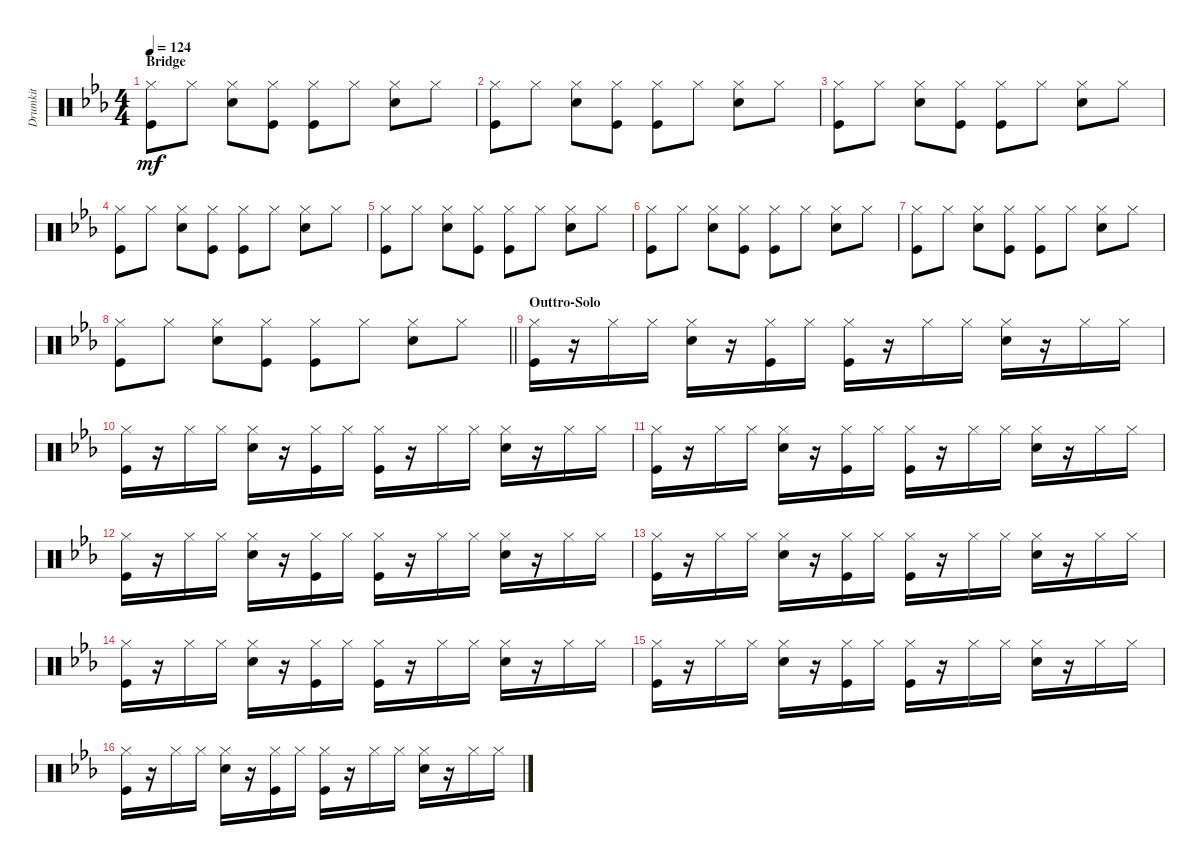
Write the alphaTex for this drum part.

\track ("Drumkit" "Drumkit") {instrument percussion}
\staff {score}
\articulation defaults
\ts (4 4)
\section ("" "Bridge")
\tempo 124
\clef neutral
\ks eb
("Hi-Hat (closed)" "Kick (hit)").8{dy mf} "Hi-Hat (closed)".8 ("Hi-Hat (closed)" "Snare (hit) 2").8 ("Hi-Hat (closed)" "Kick (hit)").8 ("Hi-Hat (closed)" "Kick (hit)").8 "Hi-Hat (closed)".8 ("Hi-Hat (closed)" "Snare (hit) 2").8 "Hi-Hat (closed)".8 |
("Hi-Hat (closed)" "Kick (hit)").8 "Hi-Hat (closed)".8 ("Hi-Hat (closed)" "Snare (hit) 2").8 ("Hi-Hat (closed)" "Kick (hit)").8 ("Hi-Hat (closed)" "Kick (hit)").8 "Hi-Hat (closed)".8 ("Hi-Hat (closed)" "Snare (hit) 2").8 "Hi-Hat (closed)".8 |
("Hi-Hat (closed)" "Kick (hit)").8 "Hi-Hat (closed)".8 ("Hi-Hat (closed)" "Snare (hit) 2").8 ("Hi-Hat (closed)" "Kick (hit)").8 ("Hi-Hat (closed)" "Kick (hit)").8 "Hi-Hat (closed)".8 ("Hi-Hat (closed)" "Snare (hit) 2").8 "Hi-Hat (closed)".8 |
("Hi-Hat (closed)" "Kick (hit)").8 "Hi-Hat (closed)".8 ("Hi-Hat (closed)" "Snare (hit) 2").8 ("Hi-Hat (closed)" "Kick (hit)").8 ("Hi-Hat (closed)" "Kick (hit)").8 "Hi-Hat (closed)".8 ("Hi-Hat (closed)" "Snare (hit) 2").8 "Hi-Hat (closed)".8 |
("Hi-Hat (closed)" "Kick (hit)").8 "Hi-Hat (closed)".8 ("Hi-Hat (closed)" "Snare (hit) 2").8 ("Hi-Hat (closed)" "Kick (hit)").8 ("Hi-Hat (closed)" "Kick (hit)").8 "Hi-Hat (closed)".8 ("Hi-Hat (closed)" "Snare (hit) 2").8 "Hi-Hat (closed)".8 |
("Hi-Hat (closed)" "Kick (hit)").8 "Hi-Hat (closed)".8 ("Hi-Hat (closed)" "Snare (hit) 2").8 ("Hi-Hat (closed)" "Kick (hit)").8 ("Hi-Hat (closed)" "Kick (hit)").8 "Hi-Hat (closed)".8 ("Hi-Hat (closed)" "Snare (hit) 2").8 "Hi-Hat (closed)".8 |
("Hi-Hat (closed)" "Kick (hit)").8 "Hi-Hat (closed)".8 ("Hi-Hat (closed)" "Snare (hit) 2").8 ("Hi-Hat (closed)" "Kick (hit)").8 ("Hi-Hat (closed)" "Kick (hit)").8 "Hi-Hat (closed)".8 ("Hi-Hat (closed)" "Snare (hit) 2").8 "Hi-Hat (closed)".8 |
\barLineRight lightlight
("Hi-Hat (closed)" "Kick (hit)").8 "Hi-Hat (closed)".8 ("Hi-Hat (closed)" "Snare (hit) 2").8 ("Hi-Hat (closed)" "Kick (hit)").8 ("Hi-Hat (closed)" "Kick (hit)").8 "Hi-Hat (closed)".8 ("Hi-Hat (closed)" "Snare (hit) 2").8 "Hi-Hat (closed)".8 |
\section ("" "Outtro-Solo")
("Hi-Hat (closed)" "Kick (hit)").16 r.16 "Hi-Hat (closed)".16 "Hi-Hat (closed)".16 ("Hi-Hat (closed)" "Snare (hit) 2").16 r.16 ("Hi-Hat (closed)" "Kick (hit)").16 "Hi-Hat (closed)".16 ("Hi-Hat (closed)" "Kick (hit)").16 r.16 "Hi-Hat (closed)".16 "Hi-Hat (closed)".16 ("Hi-Hat (closed)" "Snare (hit) 2").16 r.16 "Hi-Hat (closed)".16 "Hi-Hat (closed)".16 |
("Hi-Hat (closed)" "Kick (hit)").16 r.16 "Hi-Hat (closed)".16 "Hi-Hat (closed)".16 ("Hi-Hat (closed)" "Snare (hit) 2").16 r.16 ("Hi-Hat (closed)" "Kick (hit)").16 "Hi-Hat (closed)".16 ("Hi-Hat (closed)" "Kick (hit)").16 r.16 "Hi-Hat (closed)".16 "Hi-Hat (closed)".16 ("Hi-Hat (closed)" "Snare (hit) 2").16 r.16 "Hi-Hat (closed)".16 "Hi-Hat (closed)".16 |
("Hi-Hat (closed)" "Kick (hit)").16 r.16 "Hi-Hat (closed)".16 "Hi-Hat (closed)".16 ("Hi-Hat (closed)" "Snare (hit) 2").16 r.16 ("Hi-Hat (closed)" "Kick (hit)").16 "Hi-Hat (closed)".16 ("Hi-Hat (closed)" "Kick (hit)").16 r.16 "Hi-Hat (closed)".16 "Hi-Hat (closed)".16 ("Hi-Hat (closed)" "Snare (hit) 2").16 r.16 "Hi-Hat (closed)".16 "Hi-Hat (closed)".16 |
("Hi-Hat (closed)" "Kick (hit)").16 r.16 "Hi-Hat (closed)".16 "Hi-Hat (closed)".16 ("Hi-Hat (closed)" "Snare (hit) 2").16 r.16 ("Hi-Hat (closed)" "Kick (hit)").16 "Hi-Hat (closed)".16 ("Hi-Hat (closed)" "Kick (hit)").16 r.16 "Hi-Hat (closed)".16 "Hi-Hat (closed)".16 ("Hi-Hat (closed)" "Snare (hit) 2").16 r.16 "Hi-Hat (closed)".16 "Hi-Hat (closed)".16 |
("Hi-Hat (closed)" "Kick (hit)").16 r.16 "Hi-Hat (closed)".16 "Hi-Hat (closed)".16 ("Hi-Hat (closed)" "Snare (hit) 2").16 r.16 ("Hi-Hat (closed)" "Kick (hit)").16 "Hi-Hat (closed)".16 ("Hi-Hat (closed)" "Kick (hit)").16 r.16 "Hi-Hat (closed)".16 "Hi-Hat (closed)".16 ("Hi-Hat (closed)" "Snare (hit) 2").16 r.16 "Hi-Hat (closed)".16 "Hi-Hat (closed)".16 |
("Hi-Hat (closed)" "Kick (hit)").16 r.16 "Hi-Hat (closed)".16 "Hi-Hat (closed)".16 ("Hi-Hat (closed)" "Snare (hit) 2").16 r.16 ("Hi-Hat (closed)" "Kick (hit)").16 "Hi-Hat (closed)".16 ("Hi-Hat (closed)" "Kick (hit)").16 r.16 "Hi-Hat (closed)".16 "Hi-Hat (closed)".16 ("Hi-Hat (closed)" "Snare (hit) 2").16 r.16 "Hi-Hat (closed)".16 "Hi-Hat (closed)".16 |
("Hi-Hat (closed)" "Kick (hit)").16 r.16 "Hi-Hat (closed)".16 "Hi-Hat (closed)".16 ("Hi-Hat (closed)" "Snare (hit) 2").16 r.16 ("Hi-Hat (closed)" "Kick (hit)").16 "Hi-Hat (closed)".16 ("Hi-Hat (closed)" "Kick (hit)").16 r.16 "Hi-Hat (closed)".16 "Hi-Hat (closed)".16 ("Hi-Hat (closed)" "Snare (hit) 2").16 r.16 "Hi-Hat (closed)".16 "Hi-Hat (closed)".16 |
("Hi-Hat (closed)" "Kick (hit)").16 r.16 "Hi-Hat (closed)".16 "Hi-Hat (closed)".16 ("Hi-Hat (closed)" "Snare (hit) 2").16 r.16 ("Hi-Hat (closed)" "Kick (hit)").16 "Hi-Hat (closed)".16 ("Hi-Hat (closed)" "Kick (hit)").16 r.16 "Hi-Hat (closed)".16 "Hi-Hat (closed)".16 ("Hi-Hat (closed)" "Snare (hit) 2").16 r.16 "Hi-Hat (closed)".16 "Hi-Hat (closed)".16
